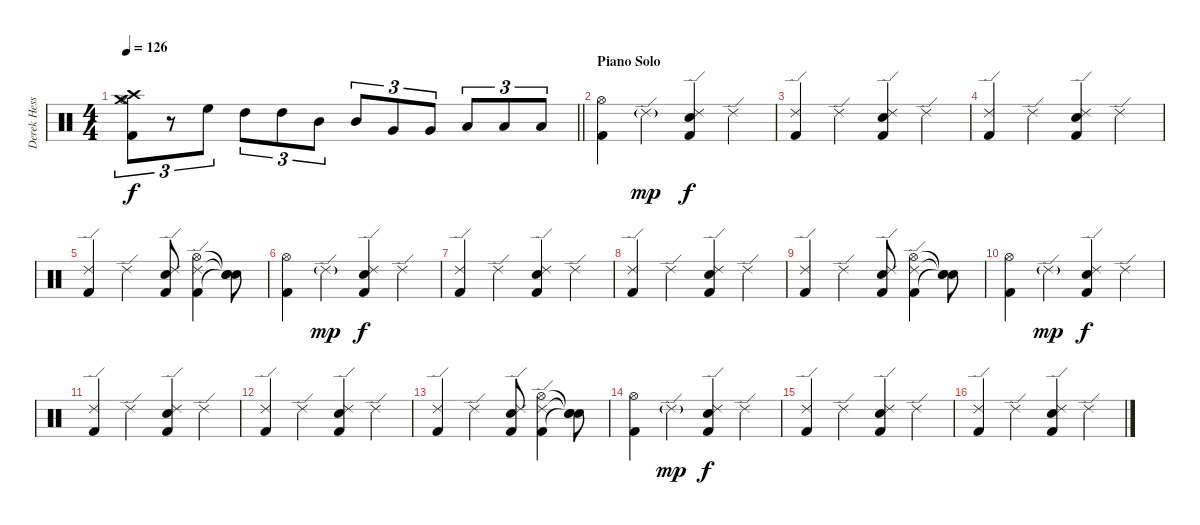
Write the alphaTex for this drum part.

\track ("Derek Hess - Drums and Percussion" "Derek Hess") {instrument percussion}
\staff {score}
\articulation defaults
\ts (4 4)
\tempo 126
\clef neutral
\barLineRight lightlight
\ks c
("Crash medium (hit)" "Crash high (hit)" "Hi-Hat (open)" "Kick (hit) 2").8{tu (3 2) dy f} r.8{tu (3 2)} "High Floor Tom (hit)".8{tu (3 2)} "High Tom (hit)".8{tu (3 2)} "High Tom (hit)".8{tu (3 2)} "Mid Tom (hit)".8{tu (3 2)} "Mid Tom (hit)".8{tu (3 2)} "Very Low Tom (hit)".8{tu (3 2)} "Very Low Tom (hit)".8{tu (3 2)} "Low Floor Tom (hit)".8{tu (3 2)} "Low Floor Tom (hit)".8{tu (3 2)} "Low Floor Tom (hit)".8{tu (3 2)} |
\section ("" "Piano Solo")
("Hi-Hat (open)" "Kick (hit) 2").4 "Ride (edge) 2"{g}.4{dy mp} ("Ride (edge) 2" "Snare (hit) 2" "Kick (hit) 2").4{dy f} "Ride (edge) 2".4 |
("Ride (edge) 2" "Kick (hit) 2").4 "Ride (edge) 2".4 ("Ride (edge) 2" "Snare (hit) 2" "Kick (hit) 2").4 "Ride (edge) 2".4 |
("Ride (edge) 2" "Kick (hit) 2").4 "Ride (edge) 2".4 ("Ride (edge) 2" "Snare (hit) 2" "Kick (hit) 2").4 "Ride (edge) 2".4 |
("Ride (edge) 2" "Kick (hit) 2").4 "Ride (edge) 2".4 ("Ride (edge) 2" "Snare (hit) 2" "Kick (hit) 2").8 ("Ride (edge) 2" "Hi-Hat (open)" "Kick (hit) 2").4 ("Snare (hit)"{t} "Snare (hit)"{t} "Snare (hit)"{t}).8 |
("Hi-Hat (open)" "Kick (hit) 2").4 "Ride (edge) 2"{g}.4{dy mp} ("Ride (edge) 2" "Snare (hit) 2" "Kick (hit) 2").4{dy f} "Ride (edge) 2".4 |
("Ride (edge) 2" "Kick (hit) 2").4 "Ride (edge) 2".4 ("Ride (edge) 2" "Snare (hit) 2" "Kick (hit) 2").4 "Ride (edge) 2".4 |
("Ride (edge) 2" "Kick (hit) 2").4 "Ride (edge) 2".4 ("Ride (edge) 2" "Snare (hit) 2" "Kick (hit) 2").4 "Ride (edge) 2".4 |
("Ride (edge) 2" "Kick (hit) 2").4 "Ride (edge) 2".4 ("Ride (edge) 2" "Snare (hit) 2" "Kick (hit) 2").8 ("Ride (edge) 2" "Hi-Hat (open)" "Kick (hit) 2").4 ("Snare (hit)"{t} "Snare (hit)"{t} "Snare (hit)"{t}).8 |
("Hi-Hat (open)" "Kick (hit) 2").4 "Ride (edge) 2"{g}.4{dy mp} ("Ride (edge) 2" "Snare (hit) 2" "Kick (hit) 2").4{dy f} "Ride (edge) 2".4 |
("Ride (edge) 2" "Kick (hit) 2").4 "Ride (edge) 2".4 ("Ride (edge) 2" "Snare (hit) 2" "Kick (hit) 2").4 "Ride (edge) 2".4 |
("Ride (edge) 2" "Kick (hit) 2").4 "Ride (edge) 2".4 ("Ride (edge) 2" "Snare (hit) 2" "Kick (hit) 2").4 "Ride (edge) 2".4 |
("Ride (edge) 2" "Kick (hit) 2").4 "Ride (edge) 2".4 ("Ride (edge) 2" "Snare (hit) 2" "Kick (hit) 2").8 ("Ride (edge) 2" "Hi-Hat (open)" "Kick (hit) 2").4 ("Snare (hit)"{t} "Snare (hit)"{t} "Snare (hit)"{t}).8 |
("Hi-Hat (open)" "Kick (hit) 2").4 "Ride (edge) 2"{g}.4{dy mp} ("Ride (edge) 2" "Snare (hit) 2" "Kick (hit) 2").4{dy f} "Ride (edge) 2".4 |
("Ride (edge) 2" "Kick (hit) 2").4 "Ride (edge) 2".4 ("Ride (edge) 2" "Snare (hit) 2" "Kick (hit) 2").4 "Ride (edge) 2".4 |
("Ride (edge) 2" "Kick (hit) 2").4 "Ride (edge) 2".4 ("Ride (edge) 2" "Snare (hit) 2" "Kick (hit) 2").4 "Ride (edge) 2".4
